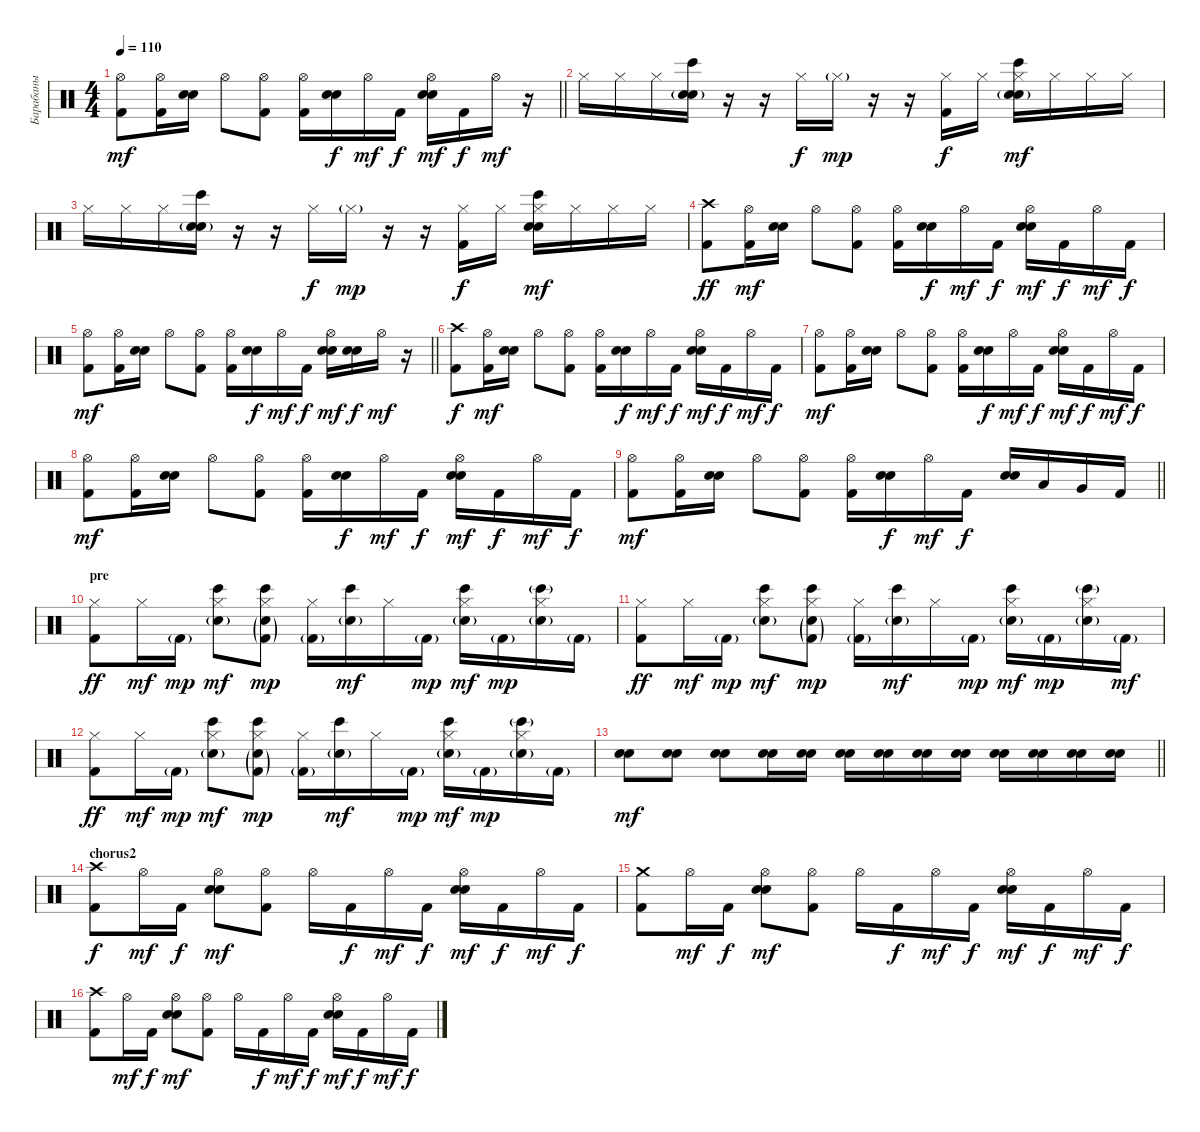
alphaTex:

\track ("Барабаны" "Барабаны") {instrument percussion}
\staff {score}
\articulation defaults
\ts (4 4)
\tempo 110
\clef neutral
\barLineRight lightlight
\ks c
("Hi-Hat (open)" "Kick (hit) 2").8{dy mf} ("Hi-Hat (open)" "Kick (hit) 2").16 ("Electric Snare (hit)" "Snare (hit) 2").16 "Hi-Hat (open)".8 ("Hi-Hat (open)" "Kick (hit) 2").8 ("Hi-Hat (open)" "Kick (hit) 2").16 ("Electric Snare (hit)" "Snare (hit) 2").16{dy f} "Hi-Hat (open)".16{dy mf} "Kick (hit) 2".16{dy f} ("Hi-Hat (open)" "Electric Snare (hit)" "Snare (hit) 2").16{dy mf} "Kick (hit) 2".16{dy f} "Hi-Hat (open)".16{dy mf} r.16 |
"Hi-Hat (closed)".16 "Hi-Hat (closed)".16 "Hi-Hat (closed)".16 ("Bongo High (hit)" "Electric Snare (hit)"{g} "Snare (hit) 2").16 r.16 r.16 "Hi-Hat (closed)".16{dy f} "Hi-Hat (closed)"{g}.16{dy mp} r.16 r.16 ("Hi-Hat (closed)" "Kick (hit) 2").16{dy f} "Hi-Hat (closed)".16 ("Hi-Hat (closed)" "Bongo High (hit)" "Electric Snare (hit)"{g} "Snare (hit) 2").16{dy mf} "Hi-Hat (closed)".16 "Hi-Hat (closed)".16 "Hi-Hat (closed)".16 |
"Hi-Hat (closed)".16 "Hi-Hat (closed)".16 "Hi-Hat (closed)".16 ("Bongo High (hit)" "Electric Snare (hit)"{g} "Snare (hit) 2").16 r.16 r.16 "Hi-Hat (closed)".16{dy f} "Hi-Hat (closed)"{g}.16{dy mp} r.16 r.16 ("Hi-Hat (closed)" "Kick (hit) 2").16{dy f} "Hi-Hat (closed)".16 ("Hi-Hat (closed)" "Bongo High (hit)" "Electric Snare (hit)" "Snare (hit) 2").16{dy mf} "Hi-Hat (closed)".16 "Hi-Hat (closed)".16 "Hi-Hat (closed)".16 |
("Crash high (hit)" "Kick (hit) 2").8{dy ff} ("Hi-Hat (open)" "Kick (hit) 2").16{dy mf} ("Electric Snare (hit)" "Snare (hit) 2").16 "Hi-Hat (open)".8 ("Hi-Hat (open)" "Kick (hit) 2").8 ("Hi-Hat (open)" "Kick (hit) 2").16 ("Electric Snare (hit)" "Snare (hit) 2").16{dy f} "Hi-Hat (open)".16{dy mf} "Kick (hit) 2".16{dy f} ("Hi-Hat (open)" "Electric Snare (hit)" "Snare (hit) 2").16{dy mf} "Kick (hit) 2".16{dy f} "Hi-Hat (open)".16{dy mf} "Kick (hit) 2".16{dy f} |
\barLineRight lightlight
("Hi-Hat (open)" "Kick (hit) 2").8{dy mf} ("Hi-Hat (open)" "Kick (hit) 2").16 ("Electric Snare (hit)" "Snare (hit) 2").16 "Hi-Hat (open)".8 ("Hi-Hat (open)" "Kick (hit) 2").8 ("Hi-Hat (open)" "Kick (hit) 2").16 ("Electric Snare (hit)" "Snare (hit) 2").16{dy f} "Hi-Hat (open)".16{dy mf} "Kick (hit) 2".16{dy f} ("Hi-Hat (open)" "Electric Snare (hit)" "Snare (hit) 2").16{dy mf} ("Electric Snare (hit)" "Snare (hit) 2").16{dy f} "Hi-Hat (open)".16{dy mf} r.16 |
("Crash high (hit)" "Kick (hit) 2").8{dy f} ("Hi-Hat (open)" "Kick (hit) 2").16{dy mf} ("Electric Snare (hit)" "Snare (hit) 2").16 "Hi-Hat (open)".8 ("Hi-Hat (open)" "Kick (hit) 2").8 ("Hi-Hat (open)" "Kick (hit) 2").16 ("Electric Snare (hit)" "Snare (hit) 2").16{dy f} "Hi-Hat (open)".16{dy mf} "Kick (hit) 2".16{dy f} ("Hi-Hat (open)" "Electric Snare (hit)" "Snare (hit) 2").16{dy mf} "Kick (hit) 2".16{dy f} "Hi-Hat (open)".16{dy mf} "Kick (hit) 2".16{dy f} |
("Hi-Hat (open)" "Kick (hit) 2").8{dy mf} ("Hi-Hat (open)" "Kick (hit) 2").16 ("Electric Snare (hit)" "Snare (hit) 2").16 "Hi-Hat (open)".8 ("Hi-Hat (open)" "Kick (hit) 2").8 ("Hi-Hat (open)" "Kick (hit) 2").16 ("Electric Snare (hit)" "Snare (hit) 2").16{dy f} "Hi-Hat (open)".16{dy mf} "Kick (hit) 2".16{dy f} ("Hi-Hat (open)" "Electric Snare (hit)" "Snare (hit) 2").16{dy mf} "Kick (hit) 2".16{dy f} "Hi-Hat (open)".16{dy mf} "Kick (hit) 2".16{dy f} |
("Hi-Hat (open)" "Kick (hit) 2").8{dy mf} ("Hi-Hat (open)" "Kick (hit) 2").16 ("Electric Snare (hit)" "Snare (hit) 2").16 "Hi-Hat (open)".8 ("Hi-Hat (open)" "Kick (hit) 2").8 ("Hi-Hat (open)" "Kick (hit) 2").16 ("Electric Snare (hit)" "Snare (hit) 2").16{dy f} "Hi-Hat (open)".16{dy mf} "Kick (hit) 2".16{dy f} ("Hi-Hat (open)" "Electric Snare (hit)" "Snare (hit) 2").16{dy mf} "Kick (hit) 2".16{dy f} "Hi-Hat (open)".16{dy mf} "Kick (hit) 2".16{dy f} |
\barLineRight lightlight
("Hi-Hat (open)" "Kick (hit) 2").8{dy mf} ("Hi-Hat (open)" "Kick (hit) 2").16 ("Electric Snare (hit)" "Snare (hit) 2").16 "Hi-Hat (open)".8 ("Hi-Hat (open)" "Kick (hit) 2").8 ("Hi-Hat (open)" "Kick (hit) 2").16 ("Electric Snare (hit)" "Snare (hit) 2").16{dy f} "Hi-Hat (open)".16{dy mf} "Kick (hit) 2".16{dy f} ("Electric Snare (hit)" "Snare (hit) 2").16 "Low Tom (hit)".16 "Very Low Tom (hit)".16 "Kick (hit) 2".16 |
\section ("" "pre")
("Hi-Hat (closed)" "Kick (hit) 2").8{dy ff} "Hi-Hat (closed)".16{dy mf} "Kick (hit) 2"{g}.16{dy mp} ("Hi-Hat (closed)" "Snare (hit) 2"{g} "Bongo High (hit)").8{dy mf} ("Hi-Hat (closed)" "Snare (hit) 2"{g} "Bongo High (hit)" "Kick (hit) 2"{g}).8{dy mp} ("Hi-Hat (closed)" "Kick (hit) 2"{g}).16 ("Snare (hit) 2"{g} "Bongo High (hit)").16{dy mf} "Hi-Hat (closed)".16 "Kick (hit) 2"{g}.16{dy mp} ("Hi-Hat (closed)" "Snare (hit) 2"{g} "Bongo High (hit)").16{dy mf} "Kick (hit) 2"{g}.16{dy mp} ("Hi-Hat (closed)" "Snare (hit) 2"{g} "Bongo High (hit)"{g}).16 "Kick (hit) 2"{g}.16 |
("Hi-Hat (closed)" "Kick (hit) 2").8{dy ff} "Hi-Hat (closed)".16{dy mf} "Kick (hit) 2"{g}.16{dy mp} ("Hi-Hat (closed)" "Snare (hit) 2"{g} "Bongo High (hit)").8{dy mf} ("Hi-Hat (closed)" "Snare (hit) 2"{g} "Bongo High (hit)" "Kick (hit) 2"{g}).8{dy mp} ("Hi-Hat (closed)" "Kick (hit) 2"{g}).16 ("Snare (hit) 2"{g} "Bongo High (hit)").16{dy mf} "Hi-Hat (closed)".16 "Kick (hit) 2"{g}.16{dy mp} ("Hi-Hat (closed)" "Snare (hit) 2"{g} "Bongo High (hit)").16{dy mf} "Kick (hit) 2"{g}.16{dy mp} ("Hi-Hat (closed)" "Snare (hit) 2"{g} "Bongo High (hit)"{g}).16 "Kick (hit) 2"{g}.16{dy mf} |
("Hi-Hat (closed)" "Kick (hit) 2").8{dy ff} "Hi-Hat (closed)".16{dy mf} "Kick (hit) 2"{g}.16{dy mp} ("Hi-Hat (closed)" "Snare (hit) 2"{g} "Bongo High (hit)").8{dy mf} ("Hi-Hat (closed)" "Snare (hit) 2"{g} "Bongo High (hit)" "Kick (hit) 2"{g}).8{dy mp} ("Hi-Hat (closed)" "Kick (hit) 2"{g}).16 ("Snare (hit) 2"{g} "Bongo High (hit)").16{dy mf} "Hi-Hat (closed)".16 "Kick (hit) 2"{g}.16{dy mp} ("Hi-Hat (closed)" "Snare (hit) 2"{g} "Bongo High (hit)").16{dy mf} "Kick (hit) 2"{g}.16{dy mp} ("Hi-Hat (closed)" "Snare (hit) 2"{g} "Bongo High (hit)"{g}).16 "Kick (hit) 2"{g}.16 |
\barLineRight lightlight
("Electric Snare (hit)" "Snare (hit) 2").8{dy mf} ("Electric Snare (hit)" "Snare (hit) 2").8 ("Electric Snare (hit)" "Snare (hit) 2").8 ("Electric Snare (hit)" "Snare (hit) 2").16 ("Electric Snare (hit)" "Snare (hit) 2").16 ("Electric Snare (hit)" "Snare (hit) 2").16 ("Electric Snare (hit)" "Snare (hit) 2").16 ("Electric Snare (hit)" "Snare (hit) 2").16 ("Electric Snare (hit)" "Snare (hit) 2").16 ("Electric Snare (hit)" "Snare (hit) 2").16 ("Electric Snare (hit)" "Snare (hit) 2").16 ("Electric Snare (hit)" "Snare (hit) 2").16 ("Electric Snare (hit)" "Snare (hit) 2").16 |
\section ("" "chorus2")
("Crash high (hit)" "Kick (hit) 2").8{dy f} "Hi-Hat (open)".16{dy mf} "Kick (hit) 2".16{dy f} ("Hi-Hat (open)" "Electric Snare (hit)" "Snare (hit) 2").8{dy mf} ("Hi-Hat (open)" "Kick (hit) 2").8 "Hi-Hat (open)".16 "Kick (hit) 2".16{dy f} "Hi-Hat (open)".16{dy mf} "Kick (hit) 2".16{dy f} ("Hi-Hat (open)" "Electric Snare (hit)" "Snare (hit) 2").16{dy mf} "Kick (hit) 2".16{dy f} "Hi-Hat (open)".16{dy mf} "Kick (hit) 2".16{dy f} |
("Crash medium (hit)" "Kick (hit) 2").8 "Hi-Hat (open)".16{dy mf} "Kick (hit) 2".16{dy f} ("Hi-Hat (open)" "Electric Snare (hit)" "Snare (hit) 2").8{dy mf} ("Hi-Hat (open)" "Kick (hit) 2").8 "Hi-Hat (open)".16 "Kick (hit) 2".16{dy f} "Hi-Hat (open)".16{dy mf} "Kick (hit) 2".16{dy f} ("Hi-Hat (open)" "Electric Snare (hit)" "Snare (hit) 2").16{dy mf} "Kick (hit) 2".16{dy f} "Hi-Hat (open)".16{dy mf} "Kick (hit) 2".16{dy f} |
("Crash high (hit)" "Kick (hit) 2").8 "Hi-Hat (open)".16{dy mf} "Kick (hit) 2".16{dy f} ("Hi-Hat (open)" "Electric Snare (hit)" "Snare (hit) 2").8{dy mf} ("Hi-Hat (open)" "Kick (hit) 2").8 "Hi-Hat (open)".16 "Kick (hit) 2".16{dy f} "Hi-Hat (open)".16{dy mf} "Kick (hit) 2".16{dy f} ("Hi-Hat (open)" "Electric Snare (hit)" "Snare (hit) 2").16{dy mf} "Kick (hit) 2".16{dy f} "Hi-Hat (open)".16{dy mf} "Kick (hit) 2".16{dy f}
